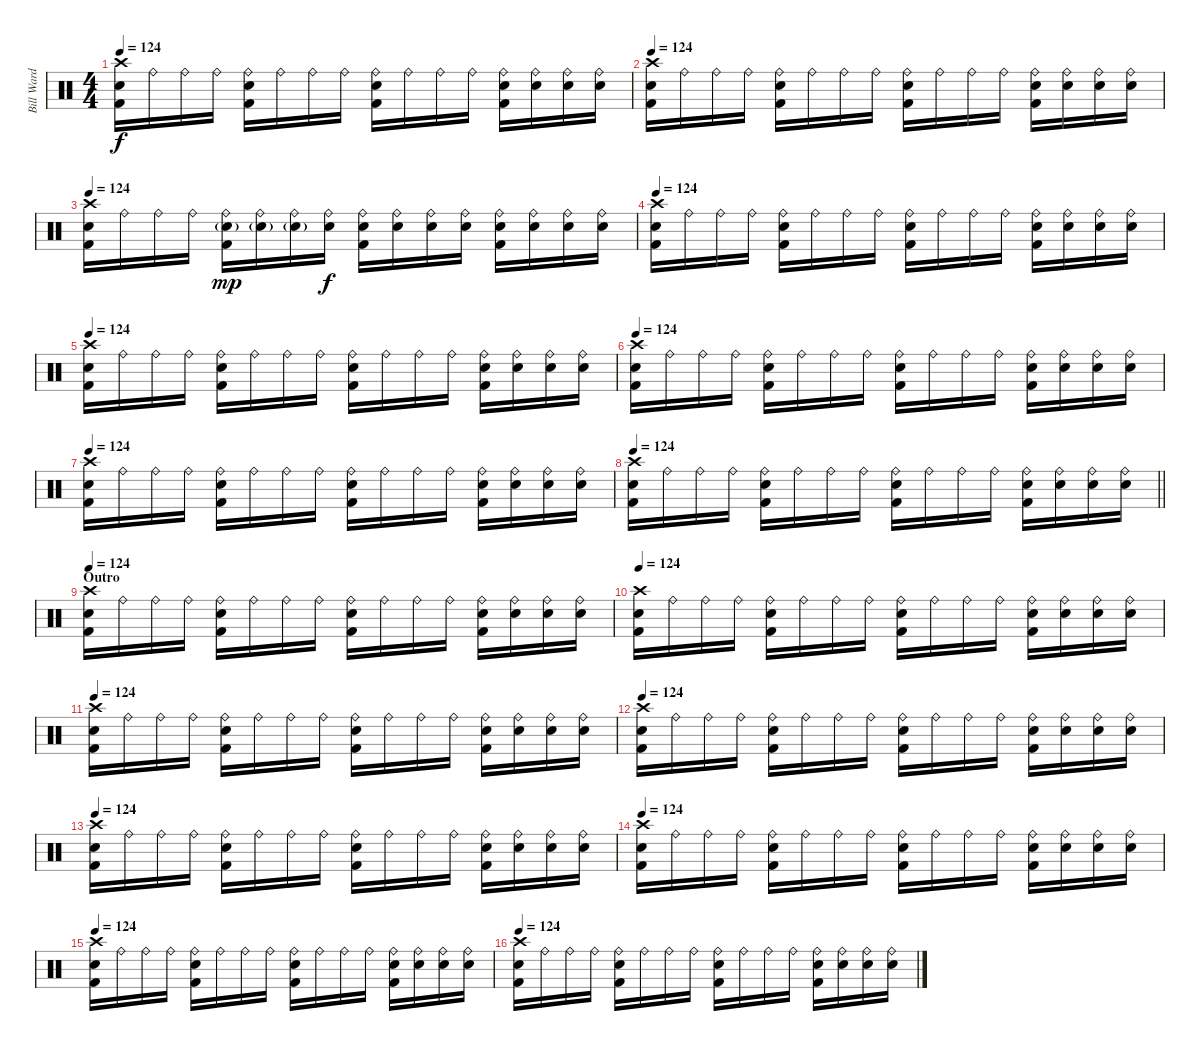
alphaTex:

\track ("Bill Ward" "Bill Ward") {instrument percussion}
\staff {score}
\articulation defaults
\ts (4 4)
\tempo 124
\clef neutral
\ks c
("Crash high (hit)" "Snare (hit) 2" "Kick (hit) 2").16{dy f} "Ride (bell)".16 "Ride (bell)".16 "Ride (bell)".16 ("Ride (bell)" "Snare (hit) 2" "Kick (hit) 2").16 "Ride (bell)".16 "Ride (bell)".16 "Ride (bell)".16 ("Ride (bell)" "Snare (hit) 2" "Kick (hit) 2").16 "Ride (bell)".16 "Ride (bell)".16 "Ride (bell)".16 ("Ride (bell)" "Snare (hit) 2" "Kick (hit) 2").16 ("Ride (bell)" "Snare (hit) 2").16 ("Ride (bell)" "Snare (hit) 2").16 ("Ride (bell)" "Snare (hit) 2").16 |
\tempo 124
("Crash high (hit)" "Snare (hit) 2" "Kick (hit) 2").16 "Ride (bell)".16 "Ride (bell)".16 "Ride (bell)".16 ("Ride (bell)" "Snare (hit) 2" "Kick (hit) 2").16 "Ride (bell)".16 "Ride (bell)".16 "Ride (bell)".16 ("Ride (bell)" "Snare (hit) 2" "Kick (hit) 2").16 "Ride (bell)".16 "Ride (bell)".16 "Ride (bell)".16 ("Ride (bell)" "Snare (hit) 2" "Kick (hit) 2").16 ("Ride (bell)" "Snare (hit) 2").16 ("Ride (bell)" "Snare (hit) 2").16 ("Ride (bell)" "Snare (hit) 2").16 |
\tempo 124
("Crash high (hit)" "Snare (hit) 2" "Kick (hit) 2").16 "Ride (bell)".16 "Ride (bell)".16 "Ride (bell)".16 ("Ride (bell)" "Snare (hit) 2"{g} "Kick (hit) 2").16{dy mp} ("Ride (bell)" "Snare (hit) 2"{g}).16 ("Ride (bell)" "Snare (hit) 2"{g}).16 ("Ride (bell)" "Snare (hit) 2").16{dy f} ("Ride (bell)" "Snare (hit) 2" "Kick (hit) 2").16 ("Ride (bell)" "Snare (hit) 2").16 ("Ride (bell)" "Snare (hit) 2").16 ("Ride (bell)" "Snare (hit) 2").16 ("Ride (bell)" "Snare (hit) 2" "Kick (hit) 2").16 ("Ride (bell)" "Snare (hit) 2").16 ("Ride (bell)" "Snare (hit) 2").16 ("Ride (bell)" "Snare (hit) 2").16 |
\tempo 124
("Crash high (hit)" "Snare (hit) 2" "Kick (hit) 2").16 "Ride (bell)".16 "Ride (bell)".16 "Ride (bell)".16 ("Ride (bell)" "Snare (hit) 2" "Kick (hit) 2").16 "Ride (bell)".16 "Ride (bell)".16 "Ride (bell)".16 ("Ride (bell)" "Snare (hit) 2" "Kick (hit) 2").16 "Ride (bell)".16 "Ride (bell)".16 "Ride (bell)".16 ("Ride (bell)" "Snare (hit) 2" "Kick (hit) 2").16 ("Ride (bell)" "Snare (hit) 2").16 ("Ride (bell)" "Snare (hit) 2").16 ("Ride (bell)" "Snare (hit) 2").16 |
\tempo 124
("Crash high (hit)" "Snare (hit) 2" "Kick (hit) 2").16 "Ride (bell)".16 "Ride (bell)".16 "Ride (bell)".16 ("Ride (bell)" "Snare (hit) 2" "Kick (hit) 2").16 "Ride (bell)".16 "Ride (bell)".16 "Ride (bell)".16 ("Ride (bell)" "Snare (hit) 2" "Kick (hit) 2").16 "Ride (bell)".16 "Ride (bell)".16 "Ride (bell)".16 ("Ride (bell)" "Snare (hit) 2" "Kick (hit) 2").16 ("Ride (bell)" "Snare (hit) 2").16 ("Ride (bell)" "Snare (hit) 2").16 ("Ride (bell)" "Snare (hit) 2").16 |
\tempo 124
("Crash high (hit)" "Snare (hit) 2" "Kick (hit) 2").16 "Ride (bell)".16 "Ride (bell)".16 "Ride (bell)".16 ("Ride (bell)" "Snare (hit) 2" "Kick (hit) 2").16 "Ride (bell)".16 "Ride (bell)".16 "Ride (bell)".16 ("Ride (bell)" "Snare (hit) 2" "Kick (hit) 2").16 "Ride (bell)".16 "Ride (bell)".16 "Ride (bell)".16 ("Ride (bell)" "Snare (hit) 2" "Kick (hit) 2").16 ("Ride (bell)" "Snare (hit) 2").16 ("Ride (bell)" "Snare (hit) 2").16 ("Ride (bell)" "Snare (hit) 2").16 |
\tempo 124
("Crash high (hit)" "Snare (hit) 2" "Kick (hit) 2").16 "Ride (bell)".16 "Ride (bell)".16 "Ride (bell)".16 ("Ride (bell)" "Snare (hit) 2" "Kick (hit) 2").16 "Ride (bell)".16 "Ride (bell)".16 "Ride (bell)".16 ("Ride (bell)" "Snare (hit) 2" "Kick (hit) 2").16 "Ride (bell)".16 "Ride (bell)".16 "Ride (bell)".16 ("Ride (bell)" "Snare (hit) 2" "Kick (hit) 2").16 ("Ride (bell)" "Snare (hit) 2").16 ("Ride (bell)" "Snare (hit) 2").16 ("Ride (bell)" "Snare (hit) 2").16 |
\tempo 124
\barLineRight lightlight
("Crash high (hit)" "Snare (hit) 2" "Kick (hit) 2").16 "Ride (bell)".16 "Ride (bell)".16 "Ride (bell)".16 ("Ride (bell)" "Snare (hit) 2" "Kick (hit) 2").16 "Ride (bell)".16 "Ride (bell)".16 "Ride (bell)".16 ("Ride (bell)" "Snare (hit) 2" "Kick (hit) 2").16 "Ride (bell)".16 "Ride (bell)".16 "Ride (bell)".16 ("Ride (bell)" "Snare (hit) 2" "Kick (hit) 2").16 ("Ride (bell)" "Snare (hit) 2").16 ("Ride (bell)" "Snare (hit) 2").16 ("Ride (bell)" "Snare (hit) 2").16 |
\section ("" "Outro")
\tempo 124
("Crash high (hit)" "Snare (hit) 2" "Kick (hit) 2").16 "Ride (bell)".16 "Ride (bell)".16 "Ride (bell)".16 ("Ride (bell)" "Snare (hit) 2" "Kick (hit) 2").16 "Ride (bell)".16 "Ride (bell)".16 "Ride (bell)".16 ("Ride (bell)" "Snare (hit) 2" "Kick (hit) 2").16 "Ride (bell)".16 "Ride (bell)".16 "Ride (bell)".16 ("Ride (bell)" "Snare (hit) 2" "Kick (hit) 2").16 ("Ride (bell)" "Snare (hit) 2").16 ("Ride (bell)" "Snare (hit) 2").16 ("Ride (bell)" "Snare (hit) 2").16 |
\tempo 124
("Crash high (hit)" "Snare (hit) 2" "Kick (hit) 2").16 "Ride (bell)".16 "Ride (bell)".16 "Ride (bell)".16 ("Ride (bell)" "Snare (hit) 2" "Kick (hit) 2").16 "Ride (bell)".16 "Ride (bell)".16 "Ride (bell)".16 ("Ride (bell)" "Snare (hit) 2" "Kick (hit) 2").16 "Ride (bell)".16 "Ride (bell)".16 "Ride (bell)".16 ("Ride (bell)" "Snare (hit) 2" "Kick (hit) 2").16 ("Ride (bell)" "Snare (hit) 2").16 ("Ride (bell)" "Snare (hit) 2").16 ("Ride (bell)" "Snare (hit) 2").16 |
\tempo 124
("Crash high (hit)" "Snare (hit) 2" "Kick (hit) 2").16 "Ride (bell)".16 "Ride (bell)".16 "Ride (bell)".16 ("Ride (bell)" "Snare (hit) 2" "Kick (hit) 2").16 "Ride (bell)".16 "Ride (bell)".16 "Ride (bell)".16 ("Ride (bell)" "Snare (hit) 2" "Kick (hit) 2").16 "Ride (bell)".16 "Ride (bell)".16 "Ride (bell)".16 ("Ride (bell)" "Snare (hit) 2" "Kick (hit) 2").16 ("Ride (bell)" "Snare (hit) 2").16 ("Ride (bell)" "Snare (hit) 2").16 ("Ride (bell)" "Snare (hit) 2").16 |
\tempo 124
("Crash high (hit)" "Snare (hit) 2" "Kick (hit) 2").16 "Ride (bell)".16 "Ride (bell)".16 "Ride (bell)".16 ("Ride (bell)" "Snare (hit) 2" "Kick (hit) 2").16 "Ride (bell)".16 "Ride (bell)".16 "Ride (bell)".16 ("Ride (bell)" "Snare (hit) 2" "Kick (hit) 2").16 "Ride (bell)".16 "Ride (bell)".16 "Ride (bell)".16 ("Ride (bell)" "Snare (hit) 2" "Kick (hit) 2").16 ("Ride (bell)" "Snare (hit) 2").16 ("Ride (bell)" "Snare (hit) 2").16 ("Ride (bell)" "Snare (hit) 2").16 |
\tempo 124
("Crash high (hit)" "Snare (hit) 2" "Kick (hit) 2").16 "Ride (bell)".16 "Ride (bell)".16 "Ride (bell)".16 ("Ride (bell)" "Snare (hit) 2" "Kick (hit) 2").16 "Ride (bell)".16 "Ride (bell)".16 "Ride (bell)".16 ("Ride (bell)" "Snare (hit) 2" "Kick (hit) 2").16 "Ride (bell)".16 "Ride (bell)".16 "Ride (bell)".16 ("Ride (bell)" "Snare (hit) 2" "Kick (hit) 2").16 ("Ride (bell)" "Snare (hit) 2").16 ("Ride (bell)" "Snare (hit) 2").16 ("Ride (bell)" "Snare (hit) 2").16 |
\tempo 124
("Crash high (hit)" "Snare (hit) 2" "Kick (hit) 2").16 "Ride (bell)".16 "Ride (bell)".16 "Ride (bell)".16 ("Ride (bell)" "Snare (hit) 2" "Kick (hit) 2").16 "Ride (bell)".16 "Ride (bell)".16 "Ride (bell)".16 ("Ride (bell)" "Snare (hit) 2" "Kick (hit) 2").16 "Ride (bell)".16 "Ride (bell)".16 "Ride (bell)".16 ("Ride (bell)" "Snare (hit) 2" "Kick (hit) 2").16 ("Ride (bell)" "Snare (hit) 2").16 ("Ride (bell)" "Snare (hit) 2").16 ("Ride (bell)" "Snare (hit) 2").16 |
\tempo 124
("Crash high (hit)" "Snare (hit) 2" "Kick (hit) 2").16 "Ride (bell)".16 "Ride (bell)".16 "Ride (bell)".16 ("Ride (bell)" "Snare (hit) 2" "Kick (hit) 2").16 "Ride (bell)".16 "Ride (bell)".16 "Ride (bell)".16 ("Ride (bell)" "Snare (hit) 2" "Kick (hit) 2").16 "Ride (bell)".16 "Ride (bell)".16 "Ride (bell)".16 ("Ride (bell)" "Snare (hit) 2" "Kick (hit) 2").16 ("Ride (bell)" "Snare (hit) 2").16 ("Ride (bell)" "Snare (hit) 2").16 ("Ride (bell)" "Snare (hit) 2").16 |
\tempo 124
("Crash high (hit)" "Snare (hit) 2" "Kick (hit) 2").16 "Ride (bell)".16 "Ride (bell)".16 "Ride (bell)".16 ("Ride (bell)" "Snare (hit) 2" "Kick (hit) 2").16 "Ride (bell)".16 "Ride (bell)".16 "Ride (bell)".16 ("Ride (bell)" "Snare (hit) 2" "Kick (hit) 2").16 "Ride (bell)".16 "Ride (bell)".16 "Ride (bell)".16 ("Ride (bell)" "Snare (hit) 2" "Kick (hit) 2").16 ("Ride (bell)" "Snare (hit) 2").16 ("Ride (bell)" "Snare (hit) 2").16 ("Ride (bell)" "Snare (hit) 2").16
